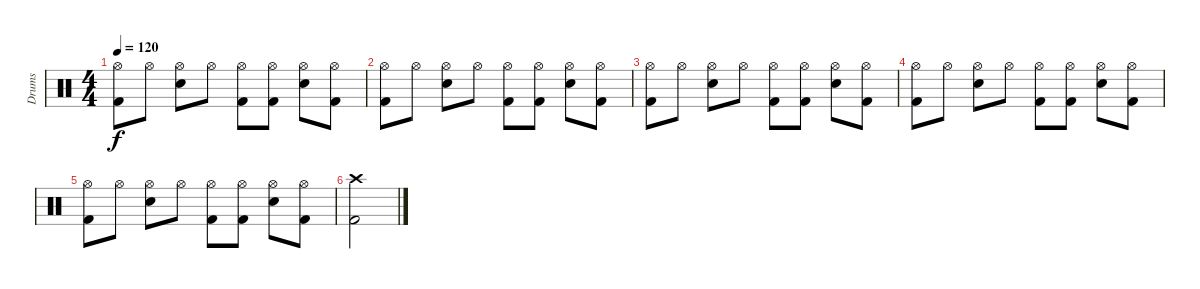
\track ("Drums" "Drums") {instrument percussion}
\staff {score}
\articulation defaults
\ts (4 4)
\tempo 120
\clef neutral
\ks c
("Hi-Hat (open)" "Kick (hit) 2").8{dy f} "Hi-Hat (open)".8 ("Hi-Hat (open)" "Snare (hit) 2").8 "Hi-Hat (open)".8 ("Hi-Hat (open)" "Kick (hit) 2").8 ("Hi-Hat (open)" "Kick (hit) 2").8 ("Hi-Hat (open)" "Snare (hit) 2").8 ("Hi-Hat (open)" "Kick (hit) 2").8 |
("Hi-Hat (open)" "Kick (hit) 2").8 "Hi-Hat (open)".8 ("Hi-Hat (open)" "Snare (hit) 2").8 "Hi-Hat (open)".8 ("Hi-Hat (open)" "Kick (hit) 2").8 ("Hi-Hat (open)" "Kick (hit) 2").8 ("Hi-Hat (open)" "Snare (hit) 2").8 ("Hi-Hat (open)" "Kick (hit) 2").8 |
("Hi-Hat (open)" "Kick (hit) 2").8 "Hi-Hat (open)".8 ("Hi-Hat (open)" "Snare (hit) 2").8 "Hi-Hat (open)".8 ("Hi-Hat (open)" "Kick (hit) 2").8 ("Hi-Hat (open)" "Kick (hit) 2").8 ("Hi-Hat (open)" "Snare (hit) 2").8 ("Hi-Hat (open)" "Kick (hit) 2").8 |
("Hi-Hat (open)" "Kick (hit) 2").8 "Hi-Hat (open)".8 ("Hi-Hat (open)" "Snare (hit) 2").8 "Hi-Hat (open)".8 ("Hi-Hat (open)" "Kick (hit) 2").8 ("Hi-Hat (open)" "Kick (hit) 2").8 ("Hi-Hat (open)" "Snare (hit) 2").8 ("Hi-Hat (open)" "Kick (hit) 2").8 |
("Hi-Hat (open)" "Kick (hit) 2").8 "Hi-Hat (open)".8 ("Hi-Hat (open)" "Snare (hit) 2").8 "Hi-Hat (open)".8 ("Hi-Hat (open)" "Kick (hit) 2").8 ("Hi-Hat (open)" "Kick (hit) 2").8 ("Hi-Hat (open)" "Snare (hit) 2").8 ("Hi-Hat (open)" "Kick (hit) 2").8 |
("Crash high (hit)" "Kick (hit) 2").2
